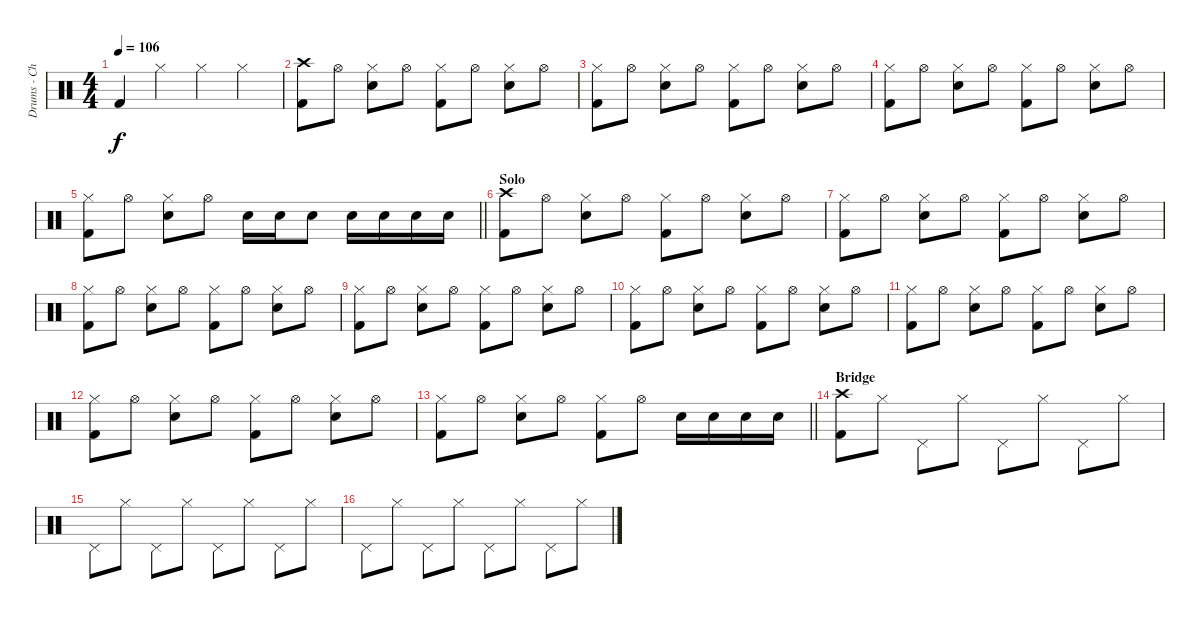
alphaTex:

\track ("Drums - Christoph Schneider" "Drums - Ch") {instrument percussion}
\staff {score}
\articulation defaults
\ts (4 4)
\tempo 106
\clef neutral
\ks c "Kick (hit) 2".4{dy f} "Hi-Hat (closed)".4 "Hi-Hat (closed)".4 "Hi-Hat (closed)".4
|
("Crash high (hit)" "Kick (hit) 2").8 "Hi-Hat (open)".8 ("Hi-Hat (closed)" "Snare (hit) 2").8 "Hi-Hat (open)".8 ("Hi-Hat (closed)" "Kick (hit) 2").8 "Hi-Hat (open)".8 ("Hi-Hat (closed)" "Snare (hit) 2").8 "Hi-Hat (open)".8 |
("Hi-Hat (closed)" "Kick (hit) 2").8 "Hi-Hat (open)".8 ("Hi-Hat (closed)" "Snare (hit) 2").8 "Hi-Hat (open)".8 ("Hi-Hat (closed)" "Kick (hit) 2").8 "Hi-Hat (open)".8 ("Hi-Hat (closed)" "Snare (hit) 2").8 "Hi-Hat (open)".8 |
("Hi-Hat (closed)" "Kick (hit) 2").8 "Hi-Hat (open)".8 ("Hi-Hat (closed)" "Snare (hit) 2").8 "Hi-Hat (open)".8 ("Hi-Hat (closed)" "Kick (hit) 2").8 "Hi-Hat (open)".8 ("Hi-Hat (closed)" "Snare (hit) 2").8 "Hi-Hat (open)".8 |
\barLineRight lightlight
("Hi-Hat (closed)" "Kick (hit) 2").8 "Hi-Hat (open)".8 ("Hi-Hat (closed)" "Snare (hit) 2").8 "Hi-Hat (open)".8 "Snare (hit) 2".16 "Snare (hit) 2".16 "Snare (hit) 2".8 "Snare (hit) 2".16 "Snare (hit) 2".16 "Snare (hit) 2".16 "Snare (hit) 2".16 |
\section ("" "Solo")
("Crash high (hit)" "Kick (hit) 2").8 "Hi-Hat (open)".8 ("Hi-Hat (closed)" "Snare (hit) 2").8 "Hi-Hat (open)".8 ("Hi-Hat (closed)" "Kick (hit) 2").8 "Hi-Hat (open)".8 ("Hi-Hat (closed)" "Snare (hit) 2").8 "Hi-Hat (open)".8 |
("Hi-Hat (closed)" "Kick (hit) 2").8 "Hi-Hat (open)".8 ("Hi-Hat (closed)" "Snare (hit) 2").8 "Hi-Hat (open)".8 ("Hi-Hat (closed)" "Kick (hit) 2").8 "Hi-Hat (open)".8 ("Hi-Hat (closed)" "Snare (hit) 2").8 "Hi-Hat (open)".8 |
("Hi-Hat (closed)" "Kick (hit) 2").8 "Hi-Hat (open)".8 ("Hi-Hat (closed)" "Snare (hit) 2").8 "Hi-Hat (open)".8 ("Hi-Hat (closed)" "Kick (hit) 2").8 "Hi-Hat (open)".8 ("Hi-Hat (closed)" "Snare (hit) 2").8 "Hi-Hat (open)".8 |
("Hi-Hat (closed)" "Kick (hit) 2").8 "Hi-Hat (open)".8 ("Hi-Hat (closed)" "Snare (hit) 2").8 "Hi-Hat (open)".8 ("Hi-Hat (closed)" "Kick (hit) 2").8 "Hi-Hat (open)".8 ("Hi-Hat (closed)" "Snare (hit) 2").8 "Hi-Hat (open)".8 |
("Hi-Hat (closed)" "Kick (hit) 2").8 "Hi-Hat (open)".8 ("Hi-Hat (closed)" "Snare (hit) 2").8 "Hi-Hat (open)".8 ("Hi-Hat (closed)" "Kick (hit) 2").8 "Hi-Hat (open)".8 ("Hi-Hat (closed)" "Snare (hit) 2").8 "Hi-Hat (open)".8 |
("Hi-Hat (closed)" "Kick (hit) 2").8 "Hi-Hat (open)".8 ("Hi-Hat (closed)" "Snare (hit) 2").8 "Hi-Hat (open)".8 ("Hi-Hat (closed)" "Kick (hit) 2").8 "Hi-Hat (open)".8 ("Hi-Hat (closed)" "Snare (hit) 2").8 "Hi-Hat (open)".8 |
("Hi-Hat (closed)" "Kick (hit) 2").8 "Hi-Hat (open)".8 ("Hi-Hat (closed)" "Snare (hit) 2").8 "Hi-Hat (open)".8 ("Hi-Hat (closed)" "Kick (hit) 2").8 "Hi-Hat (open)".8 ("Hi-Hat (closed)" "Snare (hit) 2").8 "Hi-Hat (open)".8 |
\barLineRight lightlight
("Hi-Hat (closed)" "Kick (hit) 2").8 "Hi-Hat (open)".8 ("Hi-Hat (closed)" "Snare (hit) 2").8 "Hi-Hat (open)".8 ("Hi-Hat (closed)" "Kick (hit) 2").8 "Hi-Hat (open)".8 "Snare (hit) 2".16 "Snare (hit) 2".16 "Snare (hit) 2".16 "Snare (hit) 2".16 |
\section ("" "Bridge")
("Crash high (hit)" "Kick (hit) 2").8 "Hi-Hat (closed)".8 "Pedal Hi-Hat (hit)".8 "Hi-Hat (closed)".8 "Pedal Hi-Hat (hit)".8 "Hi-Hat (closed)".8 "Pedal Hi-Hat (hit)".8 "Hi-Hat (closed)".8 |
"Pedal Hi-Hat (hit)".8 "Hi-Hat (closed)".8 "Pedal Hi-Hat (hit)".8 "Hi-Hat (closed)".8 "Pedal Hi-Hat (hit)".8 "Hi-Hat (closed)".8 "Pedal Hi-Hat (hit)".8 "Hi-Hat (closed)".8 |
"Pedal Hi-Hat (hit)".8 "Hi-Hat (closed)".8 "Pedal Hi-Hat (hit)".8 "Hi-Hat (closed)".8 "Pedal Hi-Hat (hit)".8 "Hi-Hat (closed)".8 "Pedal Hi-Hat (hit)".8 "Hi-Hat (closed)".8
